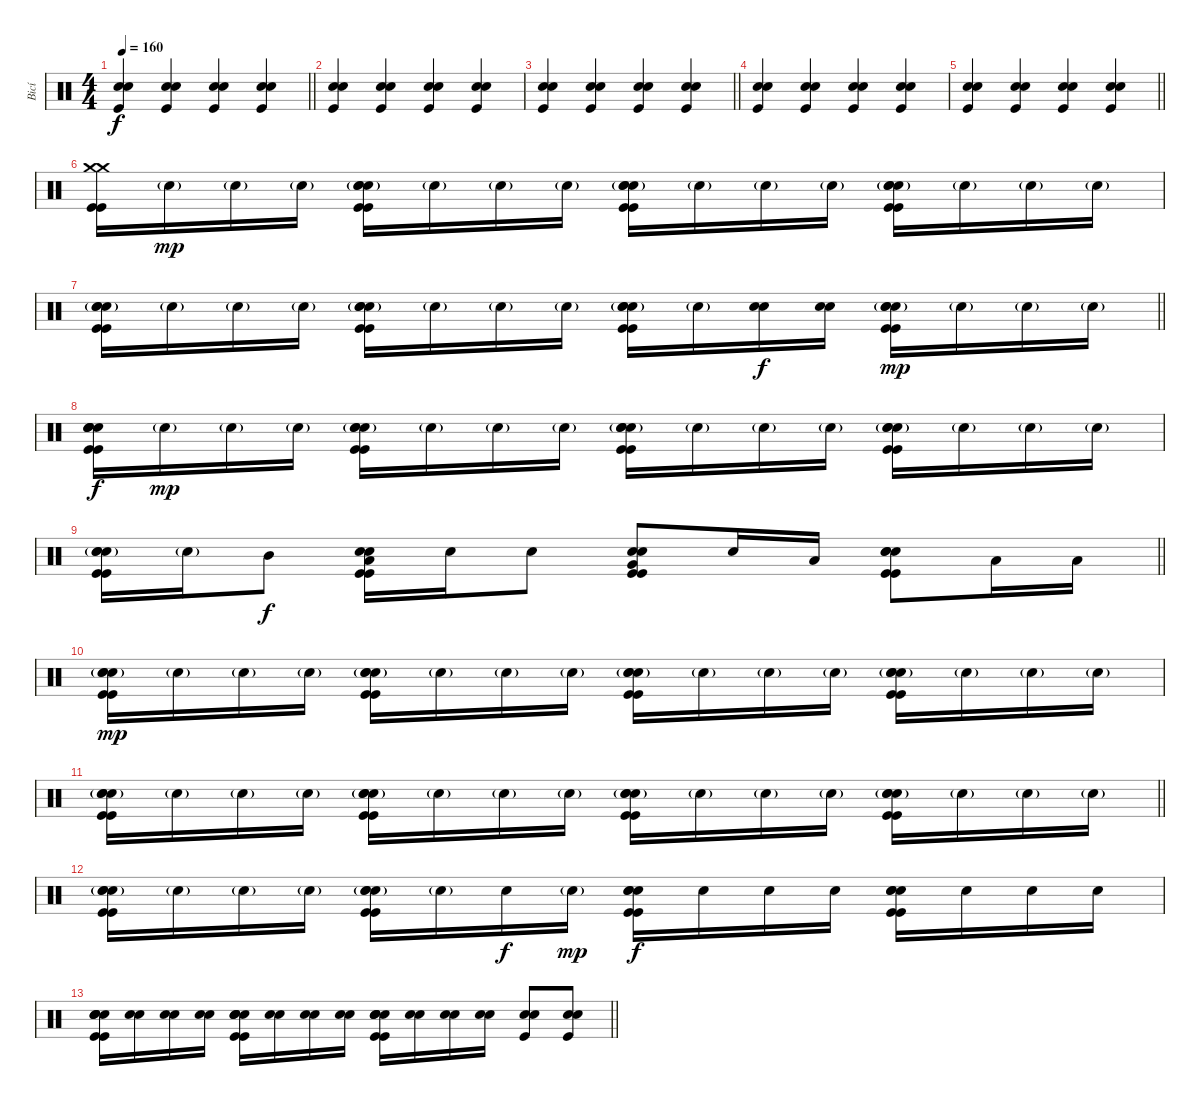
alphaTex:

\track ("Bicí" "Bicí") {instrument percussion}
\staff {score}
\articulation defaults
\ts (4 4)
\tempo 160
\clef neutral
\barLineRight lightlight
\ks c
("Hand Clap (hit)" "Hand Clap (hit)" "Kick (hit)").4{dy f} ("Hand Clap (hit)" "Hand Clap (hit)" "Kick (hit)").4 ("Hand Clap (hit)" "Hand Clap (hit)" "Kick (hit)").4 ("Hand Clap (hit)" "Hand Clap (hit)" "Kick (hit)").4 |
("Hand Clap (hit)" "Hand Clap (hit)" "Kick (hit)").4 ("Hand Clap (hit)" "Hand Clap (hit)" "Kick (hit)").4 ("Hand Clap (hit)" "Hand Clap (hit)" "Kick (hit)").4 ("Hand Clap (hit)" "Hand Clap (hit)" "Kick (hit)").4 |
\barLineRight lightlight
("Hand Clap (hit)" "Hand Clap (hit)" "Kick (hit)").4 ("Hand Clap (hit)" "Hand Clap (hit)" "Kick (hit)").4 ("Hand Clap (hit)" "Hand Clap (hit)" "Kick (hit)").4 ("Hand Clap (hit)" "Hand Clap (hit)" "Kick (hit)").4 |
("Hand Clap (hit)" "Hand Clap (hit)" "Kick (hit)").4 ("Hand Clap (hit)" "Hand Clap (hit)" "Kick (hit)").4 ("Hand Clap (hit)" "Hand Clap (hit)" "Kick (hit)").4 ("Hand Clap (hit)" "Hand Clap (hit)" "Kick (hit)").4 |
\barLineRight lightlight
("Hand Clap (hit)" "Hand Clap (hit)" "Kick (hit)").4 ("Hand Clap (hit)" "Hand Clap (hit)" "Kick (hit)").4 ("Hand Clap (hit)" "Hand Clap (hit)" "Kick (hit)").4 ("Hand Clap (hit)" "Hand Clap (hit)" "Kick (hit)").4 |
\section ("" "")
("Crash medium (hit)" "Crash medium (hit)" "Kick (hit)" "Kick (hit)").16 "Electric Snare (hit)"{g}.16{dy mp} "Electric Snare (hit)"{g}.16 "Electric Snare (hit)"{g}.16 ("Hand Clap (hit)" "Hand Clap (hit)" "Electric Snare (hit)"{g} "Kick (hit)" "Kick (hit)").16 "Electric Snare (hit)"{g}.16 "Electric Snare (hit)"{g}.16 "Electric Snare (hit)"{g}.16 ("Hand Clap (hit)" "Hand Clap (hit)" "Electric Snare (hit)"{g} "Kick (hit)" "Kick (hit)").16 "Electric Snare (hit)"{g}.16 "Electric Snare (hit)"{g}.16 "Electric Snare (hit)"{g}.16 ("Hand Clap (hit)" "Hand Clap (hit)" "Electric Snare (hit)"{g} "Kick (hit)" "Kick (hit)").16 "Electric Snare (hit)"{g}.16 "Electric Snare (hit)"{g}.16 "Electric Snare (hit)"{g}.16 |
\barLineRight lightlight
("Hand Clap (hit)" "Hand Clap (hit)" "Electric Snare (hit)"{g} "Kick (hit)" "Kick (hit)").16 "Electric Snare (hit)"{g}.16 "Electric Snare (hit)"{g}.16 "Electric Snare (hit)"{g}.16 ("Hand Clap (hit)" "Hand Clap (hit)" "Electric Snare (hit)"{g} "Kick (hit)" "Kick (hit)").16 "Electric Snare (hit)"{g}.16 "Electric Snare (hit)"{g}.16 "Electric Snare (hit)"{g}.16 ("Hand Clap (hit)" "Hand Clap (hit)" "Electric Snare (hit)"{g} "Kick (hit)" "Kick (hit)").16 "Electric Snare (hit)"{g}.16 ("Electric Snare (hit)" "Electric Snare (hit)").16{dy f} ("Electric Snare (hit)" "Electric Snare (hit)").16 ("Hand Clap (hit)" "Hand Clap (hit)" "Electric Snare (hit)"{g} "Kick (hit)" "Kick (hit)").16{dy mp} "Electric Snare (hit)"{g}.16 "Electric Snare (hit)"{g}.16 "Electric Snare (hit)"{g}.16 |
("Hand Clap (hit)" "Hand Clap (hit)" "Electric Snare (hit)" "Electric Snare (hit)" "Kick (hit)" "Kick (hit)").16{dy f} "Electric Snare (hit)"{g}.16{dy mp} "Electric Snare (hit)"{g}.16 "Electric Snare (hit)"{g}.16 ("Hand Clap (hit)" "Hand Clap (hit)" "Electric Snare (hit)"{g} "Kick (hit)" "Kick (hit)").16 "Electric Snare (hit)"{g}.16 "Electric Snare (hit)"{g}.16 "Electric Snare (hit)"{g}.16 ("Hand Clap (hit)" "Hand Clap (hit)" "Electric Snare (hit)"{g} "Kick (hit)" "Kick (hit)").16 "Electric Snare (hit)"{g}.16 "Electric Snare (hit)"{g}.16 "Electric Snare (hit)"{g}.16 ("Hand Clap (hit)" "Hand Clap (hit)" "Electric Snare (hit)"{g} "Kick (hit)" "Kick (hit)").16 "Electric Snare (hit)"{g}.16 "Electric Snare (hit)"{g}.16 "Electric Snare (hit)"{g}.16 |
\barLineRight lightlight
("Hand Clap (hit)" "Hand Clap (hit)" "Electric Snare (hit)"{g} "Kick (hit)" "Kick (hit)").16 "Electric Snare (hit)"{g}.16 "Mid Tom (hit)".8{dy f} ("Hand Clap (hit)" "Hand Clap (hit)" "Low Tom (hit)" "Kick (hit)" "Kick (hit)").16 "Electric Snare (hit)".16 "Snare (hit)".8 ("Hand Clap (hit)" "Hand Clap (hit)" "Very Low Tom (hit)" "Kick (hit)" "Kick (hit)").8 "Snare (hit)".16 "Low Tom (hit)".16 ("Hand Clap (hit)" "Hand Clap (hit)" "Electric Snare (hit)" "Kick (hit)" "Kick (hit)").8 "Low Floor Tom (hit)".16 "Low Floor Tom (hit)".16 |
("Hand Clap (hit)" "Hand Clap (hit)" "Electric Snare (hit)"{g} "Kick (hit)" "Kick (hit)").16{dy mp} "Electric Snare (hit)"{g}.16 "Electric Snare (hit)"{g}.16 "Electric Snare (hit)"{g}.16 ("Hand Clap (hit)" "Hand Clap (hit)" "Electric Snare (hit)"{g} "Kick (hit)" "Kick (hit)").16 "Electric Snare (hit)"{g}.16 "Electric Snare (hit)"{g}.16 "Electric Snare (hit)"{g}.16 ("Hand Clap (hit)" "Hand Clap (hit)" "Electric Snare (hit)"{g} "Kick (hit)" "Kick (hit)").16 "Electric Snare (hit)"{g}.16 "Electric Snare (hit)"{g}.16 "Electric Snare (hit)"{g}.16 ("Hand Clap (hit)" "Hand Clap (hit)" "Electric Snare (hit)"{g} "Kick (hit)" "Kick (hit)").16 "Electric Snare (hit)"{g}.16 "Electric Snare (hit)"{g}.16 "Electric Snare (hit)"{g}.16 |
\barLineRight lightlight
("Hand Clap (hit)" "Hand Clap (hit)" "Electric Snare (hit)"{g} "Kick (hit)" "Kick (hit)").16 "Electric Snare (hit)"{g}.16 "Electric Snare (hit)"{g}.16 "Electric Snare (hit)"{g}.16 ("Hand Clap (hit)" "Hand Clap (hit)" "Electric Snare (hit)"{g} "Kick (hit)" "Kick (hit)").16 "Electric Snare (hit)"{g}.16 "Electric Snare (hit)"{g}.16 "Electric Snare (hit)"{g}.16 ("Hand Clap (hit)" "Hand Clap (hit)" "Electric Snare (hit)"{g} "Kick (hit)" "Kick (hit)").16 "Electric Snare (hit)"{g}.16 "Electric Snare (hit)"{g}.16 "Electric Snare (hit)"{g}.16 ("Hand Clap (hit)" "Hand Clap (hit)" "Electric Snare (hit)"{g} "Kick (hit)" "Kick (hit)").16 "Electric Snare (hit)"{g}.16 "Electric Snare (hit)"{g}.16 "Electric Snare (hit)"{g}.16 |
("Hand Clap (hit)" "Hand Clap (hit)" "Electric Snare (hit)"{g} "Kick (hit)" "Kick (hit)").16 "Electric Snare (hit)"{g}.16 "Electric Snare (hit)"{g}.16 "Electric Snare (hit)"{g}.16 ("Hand Clap (hit)" "Hand Clap (hit)" "Electric Snare (hit)"{g} "Kick (hit)" "Kick (hit)").16 "Electric Snare (hit)"{g}.16 "Electric Snare (hit)".16{dy f} "Electric Snare (hit)"{g}.16{dy mp} ("Hand Clap (hit)" "Hand Clap (hit)" "Electric Snare (hit)" "Kick (hit)" "Kick (hit)").16{dy f} "Electric Snare (hit)".16 "Electric Snare (hit)".16 "Electric Snare (hit)".16 ("Hand Clap (hit)" "Hand Clap (hit)" "Electric Snare (hit)" "Kick (hit)" "Kick (hit)").16 "Electric Snare (hit)".16 "Electric Snare (hit)".16 "Electric Snare (hit)".16 |
\barLineRight lightlight
("Hand Clap (hit)" "Hand Clap (hit)" "Electric Snare (hit)" "Electric Snare (hit)" "Kick (hit)" "Kick (hit)").16 ("Electric Snare (hit)" "Electric Snare (hit)").16 ("Electric Snare (hit)" "Electric Snare (hit)").16 ("Electric Snare (hit)" "Electric Snare (hit)").16 ("Hand Clap (hit)" "Hand Clap (hit)" "Electric Snare (hit)" "Electric Snare (hit)" "Kick (hit)" "Kick (hit)").16 ("Electric Snare (hit)" "Electric Snare (hit)").16 ("Electric Snare (hit)" "Electric Snare (hit)").16 ("Electric Snare (hit)" "Electric Snare (hit)").16 ("Hand Clap (hit)" "Hand Clap (hit)" "Electric Snare (hit)" "Electric Snare (hit)" "Kick (hit)" "Kick (hit)").16 ("Electric Snare (hit)" "Electric Snare (hit)").16 ("Electric Snare (hit)" "Electric Snare (hit)").16 ("Electric Snare (hit)" "Electric Snare (hit)").16 ("Electric Snare (hit)" "Electric Snare (hit)" "Kick (hit)").8 ("Electric Snare (hit)" "Electric Snare (hit)" "Kick (hit)").8
